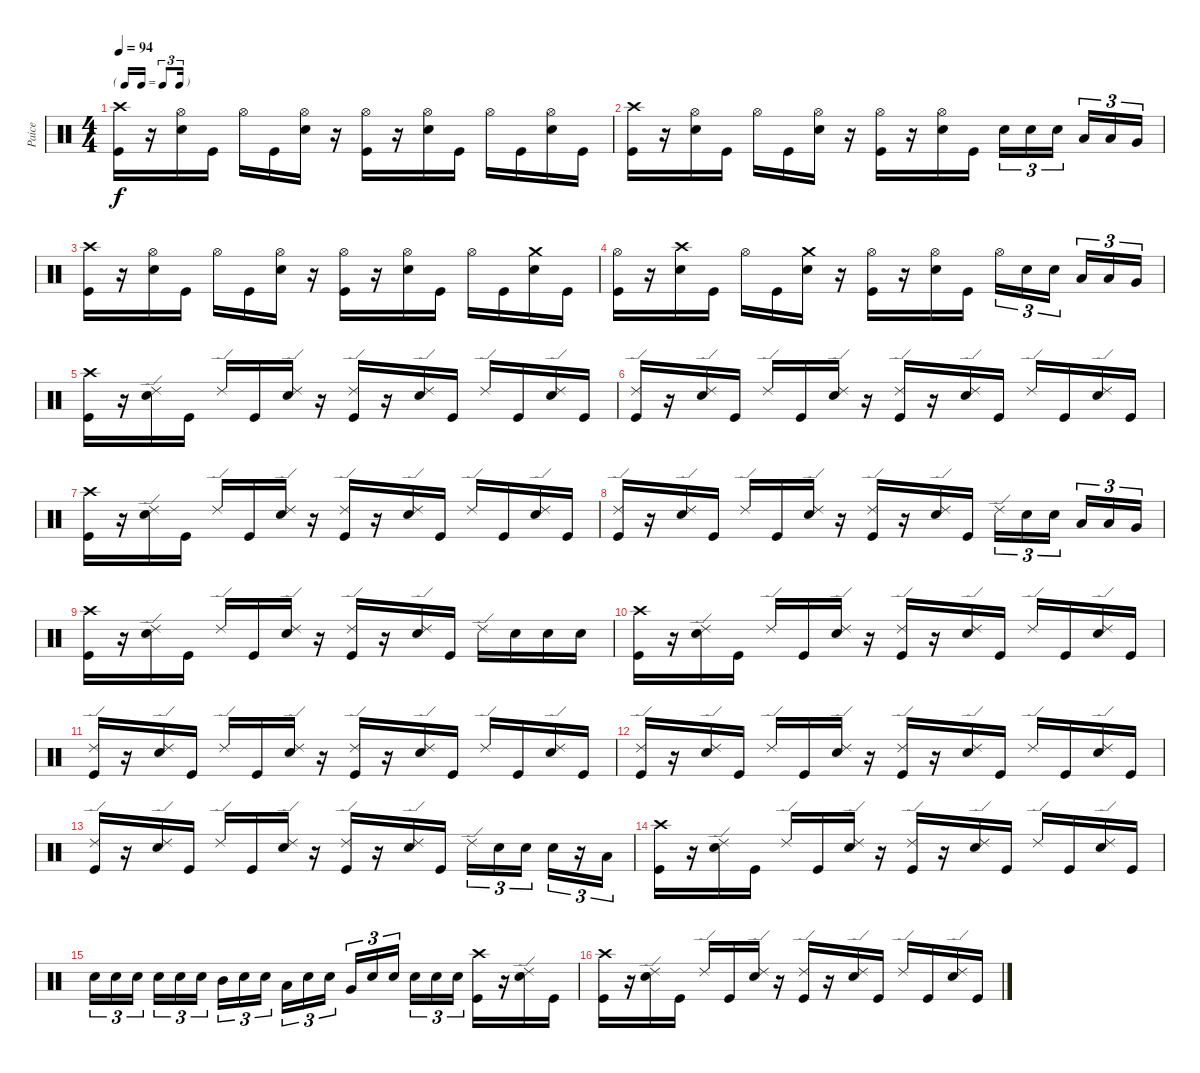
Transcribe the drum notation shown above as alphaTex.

\track ("Paice" "Paice") {instrument percussion}
\staff {score}
\articulation defaults
\ts (4 4)
\tf triplet16th
\tempo 94
\clef neutral
\ks c
("Crash high (hit)" "Kick (hit)").16{dy f} r.16 ("Hi-Hat (open)" "Snare (hit) 2").16 "Kick (hit)".16 "Hi-Hat (open)".16 "Kick (hit)".16 ("Hi-Hat (open)" "Snare (hit) 2").16 r.16 ("Hi-Hat (open)" "Kick (hit)").16 r.16 ("Hi-Hat (open)" "Snare (hit) 2").16 "Kick (hit)".16 "Hi-Hat (open)".16 "Kick (hit)".16 ("Hi-Hat (open)" "Snare (hit) 2").16 "Kick (hit)".16 |
("Crash high (hit)" "Kick (hit)").16 r.16 ("Hi-Hat (open)" "Snare (hit) 2").16 "Kick (hit)".16 "Hi-Hat (open)".16 "Kick (hit)".16 ("Hi-Hat (open)" "Snare (hit) 2").16 r.16 ("Hi-Hat (open)" "Kick (hit)").16 r.16 ("Hi-Hat (open)" "Snare (hit) 2").16 "Kick (hit)".16 "Snare (hit) 2".16{tu (3 2)} "Snare (hit) 2".16{tu (3 2)} "Snare (hit) 2".16{tu (3 2) beam splitsecondary} "Low Tom (hit)".16{tu (3 2)} "Low Tom (hit)".16{tu (3 2)} "Very Low Tom (hit)".16{tu (3 2)} |
("Crash high (hit)" "Kick (hit)").16 r.16 ("Hi-Hat (open)" "Snare (hit) 2").16 "Kick (hit)".16 "Hi-Hat (open)".16 "Kick (hit)".16 ("Hi-Hat (open)" "Snare (hit) 2").16 r.16 ("Hi-Hat (open)" "Kick (hit)").16 r.16 ("Hi-Hat (open)" "Snare (hit) 2").16 "Kick (hit)".16 "Hi-Hat (open)".16 "Kick (hit)".16 ("Crash medium (hit)" "Snare (hit) 2").16 "Kick (hit)".16 |
("Hi-Hat (open)" "Kick (hit)").16 r.16 ("Crash high (hit)" "Snare (hit) 2").16 "Kick (hit)".16 "Hi-Hat (open)".16 "Kick (hit)".16 ("Crash medium (hit)" "Snare (hit) 2").16 r.16 ("Hi-Hat (open)" "Kick (hit)").16 r.16 ("Hi-Hat (open)" "Snare (hit) 2").16 "Kick (hit)".16 "Hi-Hat (open)".16{tu (3 2)} "Snare (hit) 2".16{tu (3 2)} "Snare (hit) 2".16{tu (3 2) beam splitsecondary} "Low Tom (hit)".16{tu (3 2)} "Low Tom (hit)".16{tu (3 2)} "Very Low Tom (hit)".16{tu (3 2)} |
("Crash high (hit)" "Kick (hit)").16 r.16 ("Ride (edge) 2" "Snare (hit) 2").16 "Kick (hit)".16 "Ride (edge) 2".16 "Kick (hit)".16 ("Ride (edge) 2" "Snare (hit) 2").16 r.16 ("Ride (edge) 2" "Kick (hit)").16 r.16 ("Ride (edge) 2" "Snare (hit) 2").16 "Kick (hit)".16 "Ride (edge) 2".16 "Kick (hit)".16 ("Ride (edge) 2" "Snare (hit) 2").16 "Kick (hit)".16 |
("Ride (edge) 2" "Kick (hit)").16 r.16 ("Ride (edge) 2" "Snare (hit) 2").16 "Kick (hit)".16 "Ride (edge) 2".16 "Kick (hit)".16 ("Ride (edge) 2" "Snare (hit) 2").16 r.16 ("Ride (edge) 2" "Kick (hit)").16 r.16 ("Ride (edge) 2" "Snare (hit) 2").16 "Kick (hit)".16 "Ride (edge) 2".16 "Kick (hit)".16 ("Ride (edge) 2" "Snare (hit) 2").16 "Kick (hit)".16 |
("Crash high (hit)" "Kick (hit)").16 r.16 ("Ride (edge) 2" "Snare (hit) 2").16 "Kick (hit)".16 "Ride (edge) 2".16 "Kick (hit)".16 ("Ride (edge) 2" "Snare (hit) 2").16 r.16 ("Ride (edge) 2" "Kick (hit)").16 r.16 ("Ride (edge) 2" "Snare (hit) 2").16 "Kick (hit)".16 "Ride (edge) 2".16 "Kick (hit)".16 ("Ride (edge) 2" "Snare (hit) 2").16 "Kick (hit)".16 |
("Ride (edge) 2" "Kick (hit)").16 r.16 ("Ride (edge) 2" "Snare (hit) 2").16 "Kick (hit)".16 "Ride (edge) 2".16 "Kick (hit)".16 ("Ride (edge) 2" "Snare (hit) 2").16 r.16 ("Ride (edge) 2" "Kick (hit)").16 r.16 ("Ride (edge) 2" "Snare (hit) 2").16 "Kick (hit)".16 "Ride (edge) 2".16{tu (3 2)} "Snare (hit) 2".16{tu (3 2)} "Snare (hit) 2".16{tu (3 2) beam splitsecondary} "Low Tom (hit)".16{tu (3 2)} "Low Tom (hit)".16{tu (3 2)} "Very Low Tom (hit)".16{tu (3 2)} |
("Crash high (hit)" "Kick (hit)").16 r.16 ("Ride (edge) 2" "Snare (hit) 2").16 "Kick (hit)".16 "Ride (edge) 2".16 "Kick (hit)".16 ("Ride (edge) 2" "Snare (hit) 2").16 r.16 ("Ride (edge) 2" "Kick (hit)").16 r.16 ("Ride (edge) 2" "Snare (hit) 2").16 "Kick (hit)".16 "Ride (edge) 2".16 "Snare (hit) 2".16 "Snare (hit) 2".16 "Snare (hit) 2".16 |
("Crash high (hit)" "Kick (hit)").16 r.16 ("Ride (edge) 2" "Snare (hit) 2").16 "Kick (hit)".16 "Ride (edge) 2".16 "Kick (hit)".16 ("Ride (edge) 2" "Snare (hit) 2").16 r.16 ("Ride (edge) 2" "Kick (hit)").16 r.16 ("Ride (edge) 2" "Snare (hit) 2").16 "Kick (hit)".16 "Ride (edge) 2".16 "Kick (hit)".16 ("Ride (edge) 2" "Snare (hit) 2").16 "Kick (hit)".16 |
("Ride (edge) 2" "Kick (hit)").16 r.16 ("Ride (edge) 2" "Snare (hit) 2").16 "Kick (hit)".16 "Ride (edge) 2".16 "Kick (hit)".16 ("Ride (edge) 2" "Snare (hit) 2").16 r.16 ("Ride (edge) 2" "Kick (hit)").16 r.16 ("Ride (edge) 2" "Snare (hit) 2").16 "Kick (hit)".16 "Ride (edge) 2".16 "Kick (hit)".16 ("Ride (edge) 2" "Snare (hit) 2").16 "Kick (hit)".16 |
("Ride (edge) 2" "Kick (hit)").16 r.16 ("Ride (edge) 2" "Snare (hit) 2").16 "Kick (hit)".16 "Ride (edge) 2".16 "Kick (hit)".16 ("Ride (edge) 2" "Snare (hit) 2").16 r.16 ("Ride (edge) 2" "Kick (hit)").16 r.16 ("Ride (edge) 2" "Snare (hit) 2").16 "Kick (hit)".16 "Ride (edge) 2".16 "Kick (hit)".16 ("Ride (edge) 2" "Snare (hit) 2").16 "Kick (hit)".16 |
("Ride (edge) 2" "Kick (hit)").16 r.16 ("Ride (edge) 2" "Snare (hit) 2").16 "Kick (hit)".16 "Ride (edge) 2".16 "Kick (hit)".16 ("Ride (edge) 2" "Snare (hit) 2").16 r.16 ("Ride (edge) 2" "Kick (hit)").16 r.16 ("Ride (edge) 2" "Snare (hit) 2").16 "Kick (hit)".16 "Ride (edge) 2".16{tu (3 2)} "Snare (hit) 2".16{tu (3 2)} "Snare (hit) 2".16{tu (3 2) beam splitsecondary} "Snare (hit) 2".16{tu (3 2)} r.16{tu (3 2)} "Low Tom (hit)".16{tu (3 2)} |
("Crash high (hit)" "Kick (hit)").16 r.16 ("Ride (edge) 2" "Snare (hit) 2").16 "Kick (hit)".16 "Ride (edge) 2".16 "Kick (hit)".16 ("Ride (edge) 2" "Snare (hit) 2").16 r.16 ("Ride (edge) 2" "Kick (hit)").16 r.16 ("Ride (edge) 2" "Snare (hit) 2").16 "Kick (hit)".16 "Ride (edge) 2".16 "Kick (hit)".16 ("Ride (edge) 2" "Snare (hit) 2").16 "Kick (hit)".16 |
"Snare (hit) 2".16{tu (3 2)} "Snare (hit) 2".16{tu (3 2)} "Snare (hit) 2".16{tu (3 2) beam splitsecondary} "Snare (hit) 2".16{tu (3 2)} "Snare (hit) 2".16{tu (3 2)} "Snare (hit) 2".16{tu (3 2)} "Mid Tom (hit)".16{tu (3 2)} "Snare (hit) 2".16{tu (3 2)} "Snare (hit) 2".16{tu (3 2) beam splitsecondary} "Low Tom (hit)".16{tu (3 2)} "Snare (hit) 2".16{tu (3 2)} "Snare (hit) 2".16{tu (3 2)} "Very Low Tom (hit)".16{tu (3 2)} "Snare (hit) 2".16{tu (3 2)} "Snare (hit) 2".16{tu (3 2) beam splitsecondary} "Snare (hit) 2".16{tu (3 2)} "Snare (hit) 2".16{tu (3 2)} "Snare (hit) 2".16{tu (3 2)} ("Kick (hit)" "Crash high (hit)").16 r.16 ("Ride (edge) 2" "Snare (hit) 2").16 "Kick (hit)".16 |
("Crash high (hit)" "Kick (hit)").16 r.16 ("Ride (edge) 2" "Snare (hit) 2").16 "Kick (hit)".16 "Ride (edge) 2".16 "Kick (hit)".16 ("Ride (edge) 2" "Snare (hit) 2").16 r.16 ("Ride (edge) 2" "Kick (hit)").16 r.16 ("Ride (edge) 2" "Snare (hit) 2").16 "Kick (hit)".16 "Ride (edge) 2".16 "Kick (hit)".16 ("Ride (edge) 2" "Snare (hit) 2").16 "Kick (hit)".16
